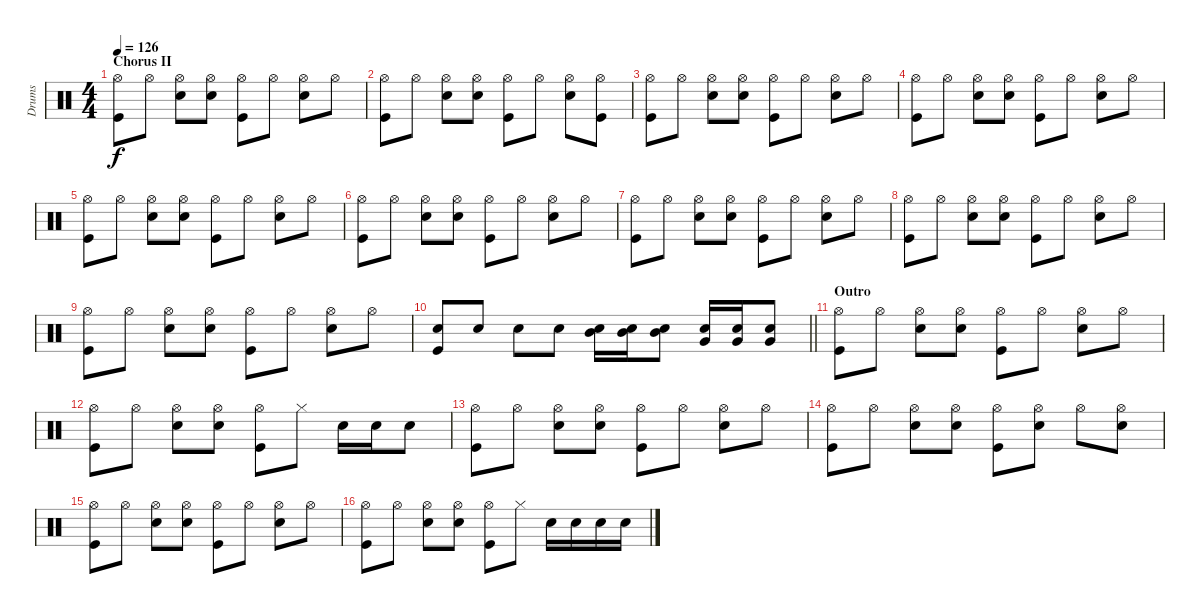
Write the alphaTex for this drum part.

\track ("Drums" "Drums") {instrument percussion}
\staff {score}
\articulation defaults
\ts (4 4)
\section ("" "Chorus II")
\tempo 126
\clef neutral
\ks c
("Kick (hit)" "Hi-Hat (open)").8{dy f} "Hi-Hat (open)".8 ("Hi-Hat (open)" "Snare (hit) 2").8 ("Hi-Hat (open)" "Snare (hit) 2").8 ("Hi-Hat (open)" "Kick (hit)").8 "Hi-Hat (open)".8 ("Hi-Hat (open)" "Snare (hit) 2").8 "Hi-Hat (open)".8 |
("Kick (hit)" "Hi-Hat (open)").8 "Hi-Hat (open)".8 ("Hi-Hat (open)" "Snare (hit) 2").8 ("Hi-Hat (open)" "Snare (hit) 2").8 ("Hi-Hat (open)" "Kick (hit)").8 "Hi-Hat (open)".8 ("Hi-Hat (open)" "Snare (hit) 2").8 ("Hi-Hat (open)" "Kick (hit)").8 |
("Hi-Hat (open)" "Kick (hit)").8 "Hi-Hat (open)".8 ("Hi-Hat (open)" "Snare (hit) 2").8 ("Hi-Hat (open)" "Snare (hit) 2").8 ("Hi-Hat (open)" "Kick (hit)").8 "Hi-Hat (open)".8 ("Hi-Hat (open)" "Snare (hit) 2").8 "Hi-Hat (open)".8 |
("Kick (hit)" "Hi-Hat (open)").8 "Hi-Hat (open)".8 ("Hi-Hat (open)" "Snare (hit) 2").8 ("Hi-Hat (open)" "Snare (hit) 2").8 ("Hi-Hat (open)" "Kick (hit)").8 "Hi-Hat (open)".8 ("Hi-Hat (open)" "Snare (hit) 2").8 "Hi-Hat (open)".8 |
("Kick (hit)" "Hi-Hat (open)").8 "Hi-Hat (open)".8 ("Hi-Hat (open)" "Snare (hit) 2").8 ("Hi-Hat (open)" "Snare (hit) 2").8 ("Hi-Hat (open)" "Kick (hit)").8 "Hi-Hat (open)".8 ("Hi-Hat (open)" "Snare (hit) 2").8 "Hi-Hat (open)".8 |
("Kick (hit)" "Hi-Hat (open)").8 "Hi-Hat (open)".8 ("Hi-Hat (open)" "Snare (hit) 2").8 ("Hi-Hat (open)" "Snare (hit) 2").8 ("Hi-Hat (open)" "Kick (hit)").8 "Hi-Hat (open)".8 ("Hi-Hat (open)" "Snare (hit) 2").8 "Hi-Hat (open)".8 |
("Kick (hit)" "Hi-Hat (open)").8 "Hi-Hat (open)".8 ("Hi-Hat (open)" "Snare (hit) 2").8 ("Hi-Hat (open)" "Snare (hit) 2").8 ("Hi-Hat (open)" "Kick (hit)").8 "Hi-Hat (open)".8 ("Hi-Hat (open)" "Snare (hit) 2").8 "Hi-Hat (open)".8 |
("Kick (hit)" "Hi-Hat (open)").8 "Hi-Hat (open)".8 ("Hi-Hat (open)" "Snare (hit) 2").8 ("Hi-Hat (open)" "Snare (hit) 2").8 ("Hi-Hat (open)" "Kick (hit)").8 "Hi-Hat (open)".8 ("Hi-Hat (open)" "Snare (hit) 2").8 "Hi-Hat (open)".8 |
("Kick (hit)" "Hi-Hat (open)").8 "Hi-Hat (open)".8 ("Hi-Hat (open)" "Snare (hit) 2").8 ("Hi-Hat (open)" "Snare (hit) 2").8 ("Hi-Hat (open)" "Kick (hit)").8 "Hi-Hat (open)".8 ("Hi-Hat (open)" "Snare (hit) 2").8 "Hi-Hat (open)".8 |
\barLineRight lightlight
("Snare (hit) 2" "Kick (hit)").8 "Snare (hit) 2".8 "Snare (hit) 2".8 "Snare (hit) 2".8 ("Snare (hit) 2" "Mid Tom (hit)").16 ("Snare (hit) 2" "Mid Tom (hit)").16 ("Snare (hit) 2" "Mid Tom (hit)").8 ("Very Low Tom (hit)" "Snare (hit) 2").16 ("Very Low Tom (hit)" "Snare (hit) 2").16 ("Snare (hit) 2" "Very Low Tom (hit)").8 |
\section ("" "Outro")
("Hi-Hat (open)" "Kick (hit)").8 "Hi-Hat (open)".8 ("Hi-Hat (open)" "Snare (hit) 2").8 ("Hi-Hat (open)" "Snare (hit) 2").8 ("Hi-Hat (open)" "Kick (hit)").8 "Hi-Hat (open)".8 ("Hi-Hat (open)" "Snare (hit) 2").8 "Hi-Hat (open)".8 |
("Hi-Hat (open)" "Kick (hit)").8 "Hi-Hat (open)".8 ("Hi-Hat (open)" "Snare (hit) 2").8 ("Hi-Hat (open)" "Snare (hit) 2").8 ("Kick (hit)" "Hi-Hat (open)").8 "Hi-Hat (closed)".8 "Snare (hit) 2".16 "Snare (hit) 2".16 "Snare (hit) 2".8 |
("Kick (hit)" "Hi-Hat (open)").8 "Hi-Hat (open)".8 ("Hi-Hat (open)" "Snare (hit) 2").8 ("Hi-Hat (open)" "Snare (hit) 2").8 ("Hi-Hat (open)" "Kick (hit)").8 "Hi-Hat (open)".8 ("Hi-Hat (open)" "Snare (hit) 2").8 "Hi-Hat (open)".8 |
("Kick (hit)" "Hi-Hat (open)").8 "Hi-Hat (open)".8 ("Hi-Hat (open)" "Snare (hit) 2").8 ("Hi-Hat (open)" "Snare (hit) 2").8 ("Hi-Hat (open)" "Kick (hit)").8 ("Hi-Hat (open)" "Snare (hit) 2").8 "Hi-Hat (open)".8 ("Hi-Hat (open)" "Snare (hit) 2").8 |
("Kick (hit)" "Hi-Hat (open)").8 "Hi-Hat (open)".8 ("Hi-Hat (open)" "Snare (hit) 2").8 ("Hi-Hat (open)" "Snare (hit) 2").8 ("Hi-Hat (open)" "Kick (hit)").8 "Hi-Hat (open)".8 ("Hi-Hat (open)" "Snare (hit) 2").8 "Hi-Hat (open)".8 |
("Kick (hit)" "Hi-Hat (open)").8 "Hi-Hat (open)".8 ("Hi-Hat (open)" "Snare (hit) 2").8 ("Hi-Hat (open)" "Snare (hit) 2").8 ("Kick (hit)" "Hi-Hat (open)").8 "Hi-Hat (closed)".8 "Snare (hit) 2".16 "Snare (hit) 2".16 "Snare (hit) 2".16 "Snare (hit) 2".16
